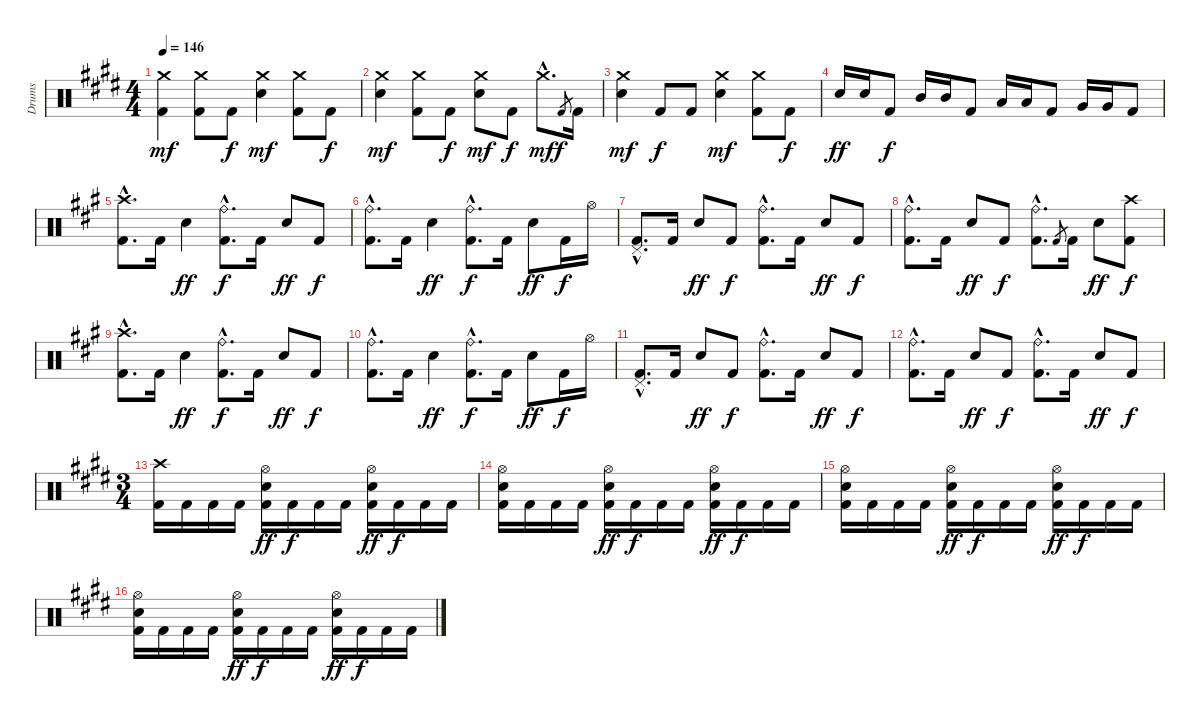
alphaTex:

\track ("Drums" "Drums") {instrument percussion}
\staff {score}
\articulation defaults
\ts (4 4)
\tempo 146
\clef neutral
\ks e
("Kick (hit) 2" "Crash medium (hit)").4{dy mf} ("Kick (hit) 2" "Crash medium (hit)").8 "Kick (hit) 2".8{dy f} ("Electric Snare (hit)" "Crash medium (hit)").4{dy mf} ("Kick (hit) 2" "Crash medium (hit)").8 "Kick (hit) 2".8{dy f} |
("Electric Snare (hit)" "Crash medium (hit)").4{dy mf} ("Kick (hit) 2" "Crash medium (hit)").8 "Kick (hit) 2".8{dy f} ("Electric Snare (hit)" "Crash medium (hit)").8{dy mf} "Kick (hit) 2".8{dy f} "Crash medium (hit)"{hac}.8{d dy mf} "Kick (hit) 2".8{gr dy f} "Kick (hit) 2".16 |
("Electric Snare (hit)" "Crash medium (hit)").4{dy mf} "Kick (hit) 2".8{dy f} "Kick (hit) 2".8 ("Electric Snare (hit)" "Crash medium (hit)").4{dy mf} ("Kick (hit) 2" "Crash medium (hit)").8 "Kick (hit) 2".8{dy f} |
"Electric Snare (hit)".16{dy ff} "Electric Snare (hit)".16 "Kick (hit) 2".8{dy f} "Mid Tom (hit)".16 "Mid Tom (hit)".16 "Kick (hit) 2".8 "Low Tom (hit)".16 "Low Tom (hit)".16 "Kick (hit) 2".8 "Very Low Tom (hit)".16 "Very Low Tom (hit)".16 "Kick (hit) 2".8 |
\ks a
("Kick (hit) 2"{hac} "Crash high (hit)"{hac}).8{d} "Kick (hit) 2".16 "Electric Snare (hit)".4{dy ff} ("Kick (hit) 2"{hac} "Ride (bell)").8{d dy f} "Kick (hit) 2".16 "Electric Snare (hit)".8{dy ff} "Kick (hit) 2".8{dy f} |
("Kick (hit) 2"{hac} "Ride (bell)"{hac}).8{d} "Kick (hit) 2".16 "Electric Snare (hit)".4{dy ff} ("Kick (hit) 2"{hac} "Ride (bell)"{hac}).8{d dy f} "Kick (hit) 2".16 "Electric Snare (hit)".8{dy ff} "Kick (hit) 2".16{dy f} "Hi-Hat (open)".16 |
("Kick (hit) 2"{hac} "Pedal Hi-Hat (hit)").8{d} "Kick (hit) 2".16 "Electric Snare (hit)".8{dy ff} "Kick (hit) 2".8{dy f} ("Kick (hit) 2"{hac} "Ride (bell)").8{d} "Kick (hit) 2".16 "Electric Snare (hit)".8{dy ff} "Kick (hit) 2".8{dy f} |
("Kick (hit) 2"{hac} "Ride (bell)"{hac}).8{d} "Kick (hit) 2".16 "Electric Snare (hit)".8{dy ff} "Kick (hit) 2".8{dy f} ("Kick (hit) 2"{hac} "Ride (bell)"{hac}).8{d} "Kick (hit) 2".8{gr} "Kick (hit) 2".16 "Electric Snare (hit)".8{dy ff} ("Kick (hit) 2" "Crash high (hit)").8{dy f} |
("Kick (hit) 2"{hac} "Crash high (hit)"{hac}).8{d} "Kick (hit) 2".16 "Electric Snare (hit)".4{dy ff} ("Kick (hit) 2"{hac} "Ride (bell)"{hac}).8{d dy f} "Kick (hit) 2".16 "Electric Snare (hit)".8{dy ff} "Kick (hit) 2".8{dy f} |
("Kick (hit) 2"{hac} "Ride (bell)"{hac}).8{d} "Kick (hit) 2".16 "Electric Snare (hit)".4{dy ff} ("Kick (hit) 2"{hac} "Ride (bell)"{hac}).8{d dy f} "Kick (hit) 2".16 "Electric Snare (hit)".8{dy ff} "Kick (hit) 2".16{dy f} "Hi-Hat (open)".16 |
("Kick (hit) 2"{hac} "Pedal Hi-Hat (hit)").8{d} "Kick (hit) 2".16 "Electric Snare (hit)".8{dy ff} "Kick (hit) 2".8{dy f} ("Kick (hit) 2"{hac} "Ride (bell)").8{d} "Kick (hit) 2".16 "Electric Snare (hit)".8{dy ff} "Kick (hit) 2".8{dy f} |
("Kick (hit) 2"{hac} "Ride (bell)").8{d} "Kick (hit) 2".16 "Electric Snare (hit)".8{dy ff} "Kick (hit) 2".8{dy f} ("Kick (hit) 2"{hac} "Ride (bell)").8{d} "Kick (hit) 2".16 "Electric Snare (hit)".8{dy ff} "Kick (hit) 2".8{dy f} |
\ts (3 4)
\ks e
("Kick (hit) 2" "Crash high (hit)").16 "Kick (hit) 2".16 "Kick (hit) 2".16 "Kick (hit) 2".16 ("Kick (hit) 2" "Electric Snare (hit)" "Hi-Hat (open)").16{dy ff} "Kick (hit) 2".16{dy f} "Kick (hit) 2".16 "Kick (hit) 2".16 ("Kick (hit) 2" "Electric Snare (hit)" "Hi-Hat (open)").16{dy ff} "Kick (hit) 2".16{dy f} "Kick (hit) 2".16 "Kick (hit) 2".16 |
("Kick (hit) 2" "Electric Snare (hit)" "Hi-Hat (open)").16 "Kick (hit) 2".16 "Kick (hit) 2".16 "Kick (hit) 2".16 ("Kick (hit) 2" "Electric Snare (hit)" "Hi-Hat (open)").16{dy ff} "Kick (hit) 2".16{dy f} "Kick (hit) 2".16 "Kick (hit) 2".16 ("Kick (hit) 2" "Electric Snare (hit)" "Hi-Hat (open)").16{dy ff} "Kick (hit) 2".16{dy f} "Kick (hit) 2".16 "Kick (hit) 2".16 |
("Kick (hit) 2" "Electric Snare (hit)" "Hi-Hat (open)").16 "Kick (hit) 2".16 "Kick (hit) 2".16 "Kick (hit) 2".16 ("Kick (hit) 2" "Electric Snare (hit)" "Hi-Hat (open)").16{dy ff} "Kick (hit) 2".16{dy f} "Kick (hit) 2".16 "Kick (hit) 2".16 ("Kick (hit) 2" "Electric Snare (hit)" "Hi-Hat (open)").16{dy ff} "Kick (hit) 2".16{dy f} "Kick (hit) 2".16 "Kick (hit) 2".16 |
("Kick (hit) 2" "Electric Snare (hit)" "Hi-Hat (open)").16 "Kick (hit) 2".16 "Kick (hit) 2".16 "Kick (hit) 2".16 ("Kick (hit) 2" "Electric Snare (hit)" "Hi-Hat (open)").16{dy ff} "Kick (hit) 2".16{dy f} "Kick (hit) 2".16 "Kick (hit) 2".16 ("Kick (hit) 2" "Electric Snare (hit)" "Hi-Hat (open)").16{dy ff} "Kick (hit) 2".16{dy f} "Kick (hit) 2".16 "Kick (hit) 2".16
